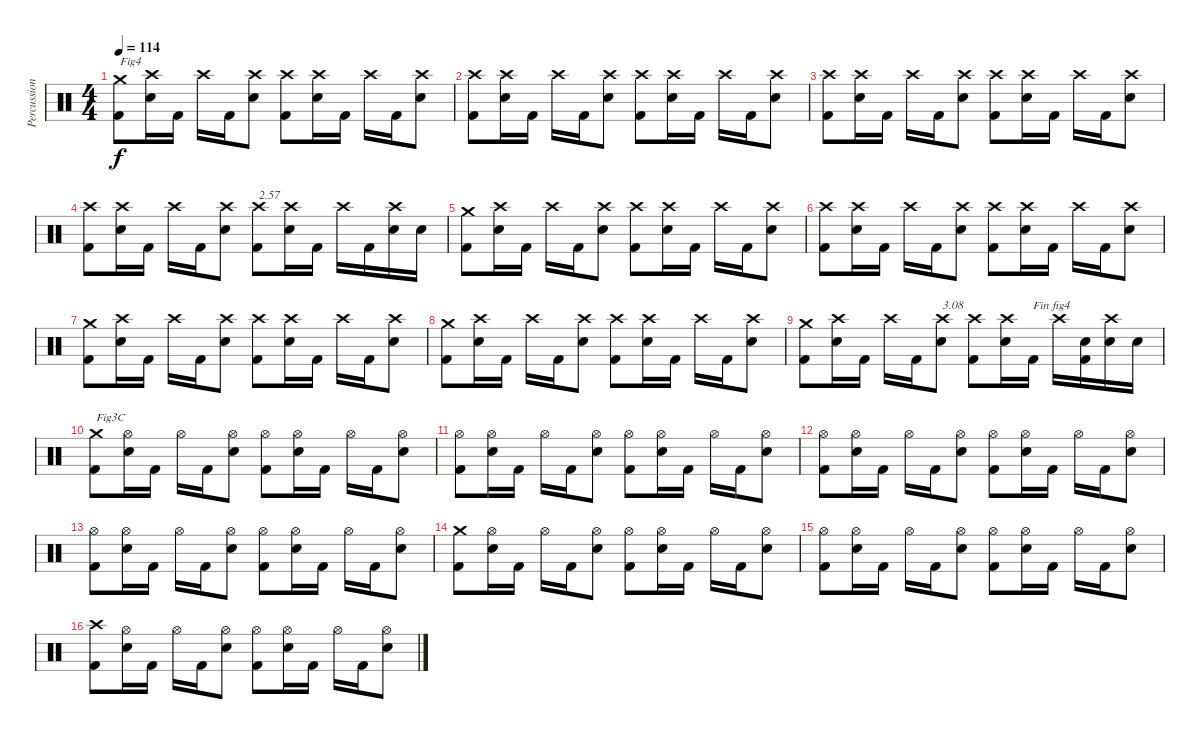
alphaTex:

\track ("Percussions" "Percussion") {instrument percussion}
\staff {score}
\articulation defaults
\ts (4 4)
\tempo 114
\clef neutral
\ks c
("Kick (hit) 2" "Crash medium (hit)").8{txt "Fig4" dy f} ("Electric Snare (hit)" "Crash high (hit)").16 "Kick (hit) 2".16 "Crash high (hit)".16 "Kick (hit) 2".16 ("Electric Snare (hit)" "Crash high (hit)").8 ("Kick (hit) 2" "Crash high (hit)").8 ("Electric Snare (hit)" "Crash high (hit)").16 "Kick (hit) 2".16 "Crash high (hit)".16 "Kick (hit) 2".16 ("Electric Snare (hit)" "Crash high (hit)").8 |
("Kick (hit) 2" "Crash high (hit)").8 ("Electric Snare (hit)" "Crash high (hit)").16 "Kick (hit) 2".16 "Crash high (hit)".16 "Kick (hit) 2".16 ("Electric Snare (hit)" "Crash high (hit)").8 ("Kick (hit) 2" "Crash high (hit)").8 ("Electric Snare (hit)" "Crash high (hit)").16 "Kick (hit) 2".16 "Crash high (hit)".16 "Kick (hit) 2".16 ("Electric Snare (hit)" "Crash high (hit)").8 |
("Kick (hit) 2" "Crash high (hit)").8 ("Electric Snare (hit)" "Crash high (hit)").16 "Kick (hit) 2".16 "Crash high (hit)".16 "Kick (hit) 2".16 ("Electric Snare (hit)" "Crash high (hit)").8 ("Kick (hit) 2" "Crash high (hit)").8 ("Electric Snare (hit)" "Crash high (hit)").16 "Kick (hit) 2".16 "Crash high (hit)".16 "Kick (hit) 2".16 ("Electric Snare (hit)" "Crash high (hit)").8 |
("Kick (hit) 2" "Crash high (hit)").8 ("Electric Snare (hit)" "Crash high (hit)").16 "Kick (hit) 2".16 "Crash high (hit)".16 "Kick (hit) 2".16 ("Electric Snare (hit)" "Crash high (hit)").8 ("Kick (hit) 2" "Crash high (hit)").8{txt "2.57"} ("Electric Snare (hit)" "Crash high (hit)").16 "Kick (hit) 2".16 "Crash high (hit)".16 "Kick (hit) 2".16 ("Electric Snare (hit)" "Crash high (hit)").16 "Electric Snare (hit)".16 |
("Kick (hit) 2" "Crash medium (hit)").8 ("Electric Snare (hit)" "Crash high (hit)").16 "Kick (hit) 2".16 "Crash high (hit)".16 "Kick (hit) 2".16 ("Electric Snare (hit)" "Crash high (hit)").8 ("Kick (hit) 2" "Crash high (hit)").8 ("Electric Snare (hit)" "Crash high (hit)").16 "Kick (hit) 2".16 "Crash high (hit)".16 "Kick (hit) 2".16 ("Electric Snare (hit)" "Crash high (hit)").8 |
("Kick (hit) 2" "Crash high (hit)").8 ("Electric Snare (hit)" "Crash high (hit)").16 "Kick (hit) 2".16 "Crash high (hit)".16 "Kick (hit) 2".16 ("Electric Snare (hit)" "Crash high (hit)").8 ("Kick (hit) 2" "Crash high (hit)").8 ("Electric Snare (hit)" "Crash high (hit)").16 "Kick (hit) 2".16 "Crash high (hit)".16 "Kick (hit) 2".16 ("Electric Snare (hit)" "Crash high (hit)").8 |
("Kick (hit) 2" "Crash medium (hit)").8 ("Electric Snare (hit)" "Crash high (hit)").16 "Kick (hit) 2".16 "Crash high (hit)".16 "Kick (hit) 2".16 ("Electric Snare (hit)" "Crash high (hit)").8 ("Kick (hit) 2" "Crash high (hit)").8 ("Electric Snare (hit)" "Crash high (hit)").16 "Kick (hit) 2".16 "Crash high (hit)".16 "Kick (hit) 2".16 ("Electric Snare (hit)" "Crash high (hit)").8 |
("Kick (hit) 2" "Crash medium (hit)").8 ("Electric Snare (hit)" "Crash high (hit)").16 "Kick (hit) 2".16 "Crash high (hit)".16 "Kick (hit) 2".16 ("Electric Snare (hit)" "Crash high (hit)").8 ("Kick (hit) 2" "Crash high (hit)").8 ("Electric Snare (hit)" "Crash high (hit)").16 "Kick (hit) 2".16 "Crash high (hit)".16 "Kick (hit) 2".16 ("Electric Snare (hit)" "Crash high (hit)").8 |
("Kick (hit) 2" "Crash medium (hit)").8 ("Electric Snare (hit)" "Crash high (hit)").16 "Kick (hit) 2".16 "Crash high (hit)".16 "Kick (hit) 2".16 ("Electric Snare (hit)" "Crash high (hit)").8{txt "3.08"} ("Kick (hit) 2" "Crash high (hit)").8 ("Electric Snare (hit)" "Crash high (hit)").16 "Kick (hit) 2".16{txt "Fin fig4"} "Crash high (hit)".16 ("Kick (hit) 2" "Electric Snare (hit)").16 ("Electric Snare (hit)" "Crash high (hit)").16 "Electric Snare (hit)".16 |
("Kick (hit) 2" "Crash medium (hit)").8{txt "Fig3C"} ("Electric Snare (hit)" "Hi-Hat (open)").16 "Kick (hit) 2".16 "Hi-Hat (open)".16 "Kick (hit) 2".16 ("Electric Snare (hit)" "Hi-Hat (open)").8 ("Kick (hit) 2" "Hi-Hat (open)").8 ("Electric Snare (hit)" "Hi-Hat (open)").16 "Kick (hit) 2".16 "Hi-Hat (open)".16 "Kick (hit) 2".16 ("Electric Snare (hit)" "Hi-Hat (open)").8 |
("Kick (hit) 2" "Hi-Hat (open)").8 ("Electric Snare (hit)" "Hi-Hat (open)").16 "Kick (hit) 2".16 "Hi-Hat (open)".16 "Kick (hit) 2".16 ("Electric Snare (hit)" "Hi-Hat (open)").8 ("Kick (hit) 2" "Hi-Hat (open)").8 ("Electric Snare (hit)" "Hi-Hat (open)").16 "Kick (hit) 2".16 "Hi-Hat (open)".16 "Kick (hit) 2".16 ("Electric Snare (hit)" "Hi-Hat (open)").8 |
("Kick (hit) 2" "Hi-Hat (open)").8 ("Electric Snare (hit)" "Hi-Hat (open)").16 "Kick (hit) 2".16 "Hi-Hat (open)".16 "Kick (hit) 2".16 ("Electric Snare (hit)" "Hi-Hat (open)").8 ("Kick (hit) 2" "Hi-Hat (open)").8 ("Electric Snare (hit)" "Hi-Hat (open)").16 "Kick (hit) 2".16 "Hi-Hat (open)".16 "Kick (hit) 2".16 ("Electric Snare (hit)" "Hi-Hat (open)").8 |
("Kick (hit) 2" "Hi-Hat (open)").8 ("Electric Snare (hit)" "Hi-Hat (open)").16 "Kick (hit) 2".16 "Hi-Hat (open)".16 "Kick (hit) 2".16 ("Electric Snare (hit)" "Hi-Hat (open)").8 ("Kick (hit) 2" "Hi-Hat (open)").8 ("Electric Snare (hit)" "Hi-Hat (open)").16 "Kick (hit) 2".16 "Hi-Hat (open)".16 "Kick (hit) 2".16 ("Electric Snare (hit)" "Hi-Hat (open)").8 |
("Kick (hit) 2" "Crash medium (hit)").8 ("Electric Snare (hit)" "Hi-Hat (open)").16 "Kick (hit) 2".16 "Hi-Hat (open)".16 "Kick (hit) 2".16 ("Electric Snare (hit)" "Hi-Hat (open)").8 ("Kick (hit) 2" "Hi-Hat (open)").8 ("Electric Snare (hit)" "Hi-Hat (open)").16 "Kick (hit) 2".16 "Hi-Hat (open)".16 "Kick (hit) 2".16 ("Electric Snare (hit)" "Hi-Hat (open)").8 |
("Kick (hit) 2" "Hi-Hat (open)").8 ("Electric Snare (hit)" "Hi-Hat (open)").16 "Kick (hit) 2".16 "Hi-Hat (open)".16 "Kick (hit) 2".16 ("Electric Snare (hit)" "Hi-Hat (open)").8 ("Kick (hit) 2" "Hi-Hat (open)").8 ("Electric Snare (hit)" "Hi-Hat (open)").16 "Kick (hit) 2".16 "Hi-Hat (open)".16 "Kick (hit) 2".16 ("Electric Snare (hit)" "Hi-Hat (open)").8 |
("Kick (hit) 2" "Crash high (hit)").8 ("Electric Snare (hit)" "Hi-Hat (open)").16 "Kick (hit) 2".16 "Hi-Hat (open)".16 "Kick (hit) 2".16 ("Electric Snare (hit)" "Hi-Hat (open)").8 ("Kick (hit) 2" "Hi-Hat (open)").8 ("Electric Snare (hit)" "Hi-Hat (open)").16 "Kick (hit) 2".16 "Hi-Hat (open)".16 "Kick (hit) 2".16 ("Electric Snare (hit)" "Hi-Hat (open)").8
